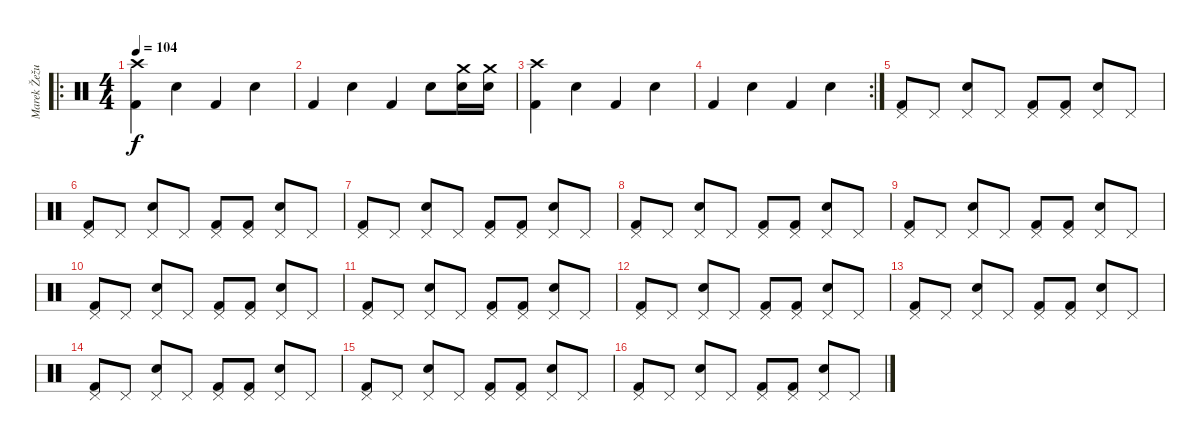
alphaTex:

\track ("Marek Žežulka" "Marek Žežu") {instrument percussion}
\staff {score}
\articulation defaults
\ro
\ts (4 4)
\tempo 104
\clef neutral
\ks c
("Crash high (hit)" "Kick (hit) 2").4{dy f} "Electric Snare (hit)".4 "Kick (hit) 2".4 "Electric Snare (hit)".4 |
"Kick (hit) 2".4 "Electric Snare (hit)".4 "Kick (hit) 2".4 "Electric Snare (hit)".8 ("Crash medium (hit)" "Electric Snare (hit)").16 ("Crash medium (hit)" "Electric Snare (hit)").16 |
("Crash high (hit)" "Kick (hit) 2").4 "Electric Snare (hit)".4 "Kick (hit) 2".4 "Electric Snare (hit)".4 |
\rc 2 "Kick (hit) 2".4 "Electric Snare (hit)".4 "Kick (hit) 2".4 "Electric Snare (hit)".4
|
("Pedal Hi-Hat (hit)" "Kick (hit) 2").8 "Pedal Hi-Hat (hit)".8 ("Pedal Hi-Hat (hit)" "Electric Snare (hit)").8 "Pedal Hi-Hat (hit)".8 ("Pedal Hi-Hat (hit)" "Kick (hit) 2").8 ("Pedal Hi-Hat (hit)" "Kick (hit) 2").8 ("Pedal Hi-Hat (hit)" "Electric Snare (hit)").8 "Pedal Hi-Hat (hit)".8 |
("Pedal Hi-Hat (hit)" "Kick (hit) 2").8 "Pedal Hi-Hat (hit)".8 ("Pedal Hi-Hat (hit)" "Electric Snare (hit)").8 "Pedal Hi-Hat (hit)".8 ("Pedal Hi-Hat (hit)" "Kick (hit) 2").8 ("Pedal Hi-Hat (hit)" "Kick (hit) 2").8 ("Pedal Hi-Hat (hit)" "Electric Snare (hit)").8 "Pedal Hi-Hat (hit)".8 |
("Pedal Hi-Hat (hit)" "Kick (hit) 2").8 "Pedal Hi-Hat (hit)".8 ("Pedal Hi-Hat (hit)" "Electric Snare (hit)").8 "Pedal Hi-Hat (hit)".8 ("Pedal Hi-Hat (hit)" "Kick (hit) 2").8 ("Pedal Hi-Hat (hit)" "Kick (hit) 2").8 ("Pedal Hi-Hat (hit)" "Electric Snare (hit)").8 "Pedal Hi-Hat (hit)".8 |
("Pedal Hi-Hat (hit)" "Kick (hit) 2").8 "Pedal Hi-Hat (hit)".8 ("Pedal Hi-Hat (hit)" "Electric Snare (hit)").8 "Pedal Hi-Hat (hit)".8 ("Pedal Hi-Hat (hit)" "Kick (hit) 2").8 ("Pedal Hi-Hat (hit)" "Kick (hit) 2").8 ("Pedal Hi-Hat (hit)" "Electric Snare (hit)").8 "Pedal Hi-Hat (hit)".8 |
("Pedal Hi-Hat (hit)" "Kick (hit) 2").8 "Pedal Hi-Hat (hit)".8 ("Pedal Hi-Hat (hit)" "Electric Snare (hit)").8 "Pedal Hi-Hat (hit)".8 ("Pedal Hi-Hat (hit)" "Kick (hit) 2").8 ("Pedal Hi-Hat (hit)" "Kick (hit) 2").8 ("Pedal Hi-Hat (hit)" "Electric Snare (hit)").8 "Pedal Hi-Hat (hit)".8 |
("Pedal Hi-Hat (hit)" "Kick (hit) 2").8 "Pedal Hi-Hat (hit)".8 ("Pedal Hi-Hat (hit)" "Electric Snare (hit)").8 "Pedal Hi-Hat (hit)".8 ("Pedal Hi-Hat (hit)" "Kick (hit) 2").8 ("Pedal Hi-Hat (hit)" "Kick (hit) 2").8 ("Pedal Hi-Hat (hit)" "Electric Snare (hit)").8 "Pedal Hi-Hat (hit)".8 |
("Pedal Hi-Hat (hit)" "Kick (hit) 2").8 "Pedal Hi-Hat (hit)".8 ("Pedal Hi-Hat (hit)" "Electric Snare (hit)").8 "Pedal Hi-Hat (hit)".8 ("Pedal Hi-Hat (hit)" "Kick (hit) 2").8 ("Pedal Hi-Hat (hit)" "Kick (hit) 2").8 ("Pedal Hi-Hat (hit)" "Electric Snare (hit)").8 "Pedal Hi-Hat (hit)".8 |
("Pedal Hi-Hat (hit)" "Kick (hit) 2").8 "Pedal Hi-Hat (hit)".8 ("Pedal Hi-Hat (hit)" "Electric Snare (hit)").8 "Pedal Hi-Hat (hit)".8 ("Pedal Hi-Hat (hit)" "Kick (hit) 2").8 ("Pedal Hi-Hat (hit)" "Kick (hit) 2").8 ("Pedal Hi-Hat (hit)" "Electric Snare (hit)").8 "Pedal Hi-Hat (hit)".8 |
("Pedal Hi-Hat (hit)" "Kick (hit) 2").8 "Pedal Hi-Hat (hit)".8 ("Pedal Hi-Hat (hit)" "Electric Snare (hit)").8 "Pedal Hi-Hat (hit)".8 ("Pedal Hi-Hat (hit)" "Kick (hit) 2").8 ("Pedal Hi-Hat (hit)" "Kick (hit) 2").8 ("Pedal Hi-Hat (hit)" "Electric Snare (hit)").8 "Pedal Hi-Hat (hit)".8 |
("Pedal Hi-Hat (hit)" "Kick (hit) 2").8 "Pedal Hi-Hat (hit)".8 ("Pedal Hi-Hat (hit)" "Electric Snare (hit)").8 "Pedal Hi-Hat (hit)".8 ("Pedal Hi-Hat (hit)" "Kick (hit) 2").8 ("Pedal Hi-Hat (hit)" "Kick (hit) 2").8 ("Pedal Hi-Hat (hit)" "Electric Snare (hit)").8 "Pedal Hi-Hat (hit)".8 |
("Pedal Hi-Hat (hit)" "Kick (hit) 2").8 "Pedal Hi-Hat (hit)".8 ("Pedal Hi-Hat (hit)" "Electric Snare (hit)").8 "Pedal Hi-Hat (hit)".8 ("Pedal Hi-Hat (hit)" "Kick (hit) 2").8 ("Pedal Hi-Hat (hit)" "Kick (hit) 2").8 ("Pedal Hi-Hat (hit)" "Electric Snare (hit)").8 "Pedal Hi-Hat (hit)".8 |
("Pedal Hi-Hat (hit)" "Kick (hit) 2").8 "Pedal Hi-Hat (hit)".8 ("Pedal Hi-Hat (hit)" "Electric Snare (hit)").8 "Pedal Hi-Hat (hit)".8 ("Pedal Hi-Hat (hit)" "Kick (hit) 2").8 ("Pedal Hi-Hat (hit)" "Kick (hit) 2").8 ("Pedal Hi-Hat (hit)" "Electric Snare (hit)").8 "Pedal Hi-Hat (hit)".8
